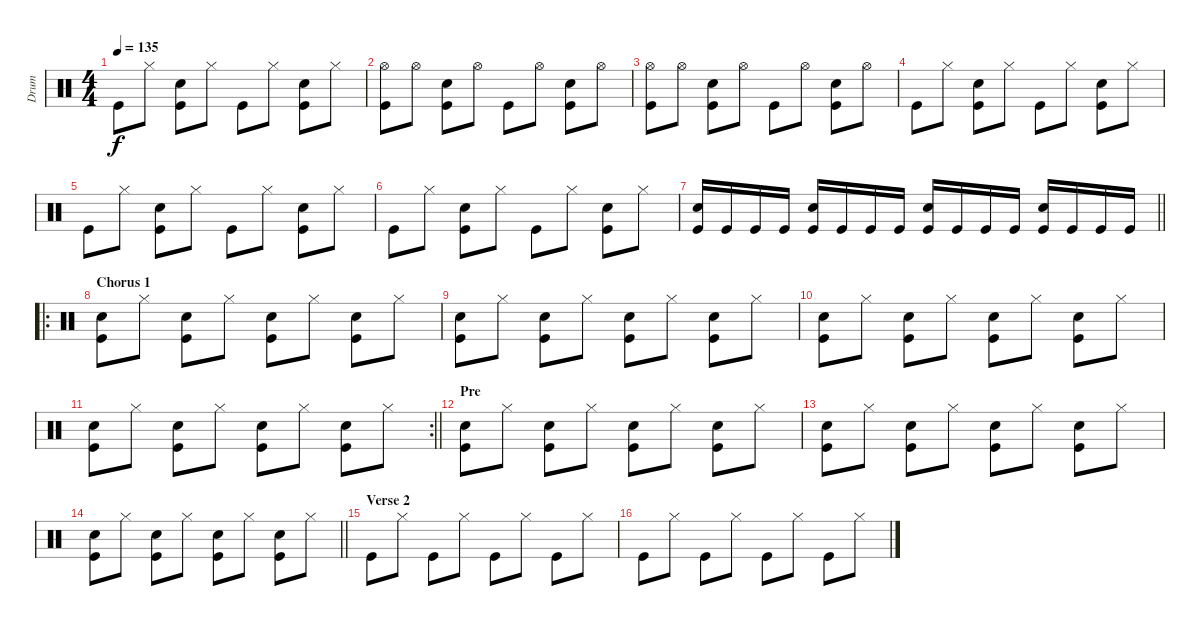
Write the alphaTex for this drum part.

\track ("Drum" "Drum") {instrument percussion}
\staff {score}
\articulation defaults
\ts (4 4)
\tempo 135
\clef neutral
\ks c "Kick (hit)".8{dy f} "Hi-Hat (closed)".8
("Snare (hit) 2" "Kick (hit)").8 "Hi-Hat (closed)".8 "Kick (hit)".8 "Hi-Hat (closed)".8 ("Snare (hit) 2" "Kick (hit)").8 "Hi-Hat (closed)".8 |
("Hi-Hat (open)" "Kick (hit)").8 "Hi-Hat (open)".8 ("Snare (hit) 2" "Kick (hit)").8 "Hi-Hat (open)".8 "Kick (hit)".8 "Hi-Hat (open)".8 ("Snare (hit) 2" "Kick (hit)").8 "Hi-Hat (open)".8 |
("Hi-Hat (open)" "Kick (hit)").8 "Hi-Hat (open)".8 ("Snare (hit) 2" "Kick (hit)").8 "Hi-Hat (open)".8 "Kick (hit)".8 "Hi-Hat (open)".8 ("Snare (hit) 2" "Kick (hit)").8 "Hi-Hat (open)".8 |
"Kick (hit)".8 "Hi-Hat (closed)".8 ("Snare (hit) 2" "Kick (hit)").8 "Hi-Hat (closed)".8 "Kick (hit)".8 "Hi-Hat (closed)".8 ("Snare (hit) 2" "Kick (hit)").8 "Hi-Hat (closed)".8 |
"Kick (hit)".8 "Hi-Hat (closed)".8 ("Snare (hit) 2" "Kick (hit)").8 "Hi-Hat (closed)".8 "Kick (hit)".8 "Hi-Hat (closed)".8 ("Snare (hit) 2" "Kick (hit)").8 "Hi-Hat (closed)".8 |
"Kick (hit)".8 "Hi-Hat (closed)".8 ("Snare (hit) 2" "Kick (hit)").8 "Hi-Hat (closed)".8 "Kick (hit)".8 "Hi-Hat (closed)".8 ("Snare (hit) 2" "Kick (hit)").8 "Hi-Hat (closed)".8 |
\barLineRight lightlight
("Snare (hit) 2" "Kick (hit)").16 "Kick (hit)".16 "Kick (hit)".16 "Kick (hit)".16 ("Snare (hit) 2" "Kick (hit)").16 "Kick (hit)".16 "Kick (hit)".16 "Kick (hit)".16 ("Snare (hit) 2" "Kick (hit)").16 "Kick (hit)".16 "Kick (hit)".16 "Kick (hit)".16 ("Snare (hit) 2" "Kick (hit)").16 "Kick (hit)".16 "Kick (hit)".16 "Kick (hit)".16 |
\ro
\section ("" "Chorus 1")
("Snare (hit) 2" "Kick (hit)").8 "Hi-Hat (closed)".8 ("Snare (hit) 2" "Kick (hit)").8 "Hi-Hat (closed)".8 ("Snare (hit) 2" "Kick (hit)").8 "Hi-Hat (closed)".8 ("Snare (hit) 2" "Kick (hit)").8 "Hi-Hat (closed)".8 |
("Snare (hit) 2" "Kick (hit)").8 "Hi-Hat (closed)".8 ("Snare (hit) 2" "Kick (hit)").8 "Hi-Hat (closed)".8 ("Snare (hit) 2" "Kick (hit)").8 "Hi-Hat (closed)".8 ("Snare (hit) 2" "Kick (hit)").8 "Hi-Hat (closed)".8 |
("Snare (hit) 2" "Kick (hit)").8 "Hi-Hat (closed)".8 ("Snare (hit) 2" "Kick (hit)").8 "Hi-Hat (closed)".8 ("Snare (hit) 2" "Kick (hit)").8 "Hi-Hat (closed)".8 ("Snare (hit) 2" "Kick (hit)").8 "Hi-Hat (closed)".8 |
\rc 2
\barLineRight lightlight
("Snare (hit) 2" "Kick (hit)").8 "Hi-Hat (closed)".8 ("Snare (hit) 2" "Kick (hit)").8 "Hi-Hat (closed)".8 ("Snare (hit) 2" "Kick (hit)").8 "Hi-Hat (closed)".8 ("Snare (hit) 2" "Kick (hit)").8 "Hi-Hat (closed)".8 |
\section ("" "Pre")
("Snare (hit) 2" "Kick (hit)").8 "Hi-Hat (closed)".8 ("Snare (hit) 2" "Kick (hit)").8 "Hi-Hat (closed)".8 ("Snare (hit) 2" "Kick (hit)").8 "Hi-Hat (closed)".8 ("Snare (hit) 2" "Kick (hit)").8 "Hi-Hat (closed)".8 |
("Snare (hit) 2" "Kick (hit)").8 "Hi-Hat (closed)".8 ("Snare (hit) 2" "Kick (hit)").8 "Hi-Hat (closed)".8 ("Snare (hit) 2" "Kick (hit)").8 "Hi-Hat (closed)".8 ("Snare (hit) 2" "Kick (hit)").8 "Hi-Hat (closed)".8 |
\barLineRight lightlight
("Snare (hit) 2" "Kick (hit)").8 "Hi-Hat (closed)".8 ("Snare (hit) 2" "Kick (hit)").8 "Hi-Hat (closed)".8 ("Snare (hit) 2" "Kick (hit)").8 "Hi-Hat (closed)".8 ("Snare (hit) 2" "Kick (hit)").8 "Hi-Hat (closed)".8 |
\section ("" "Verse 2")
"Kick (hit)".8 "Hi-Hat (closed)".8 "Kick (hit)".8 "Hi-Hat (closed)".8 "Kick (hit)".8 "Hi-Hat (closed)".8 "Kick (hit)".8 "Hi-Hat (closed)".8 |
"Kick (hit)".8 "Hi-Hat (closed)".8 "Kick (hit)".8 "Hi-Hat (closed)".8 "Kick (hit)".8 "Hi-Hat (closed)".8 "Kick (hit)".8 "Hi-Hat (closed)".8
